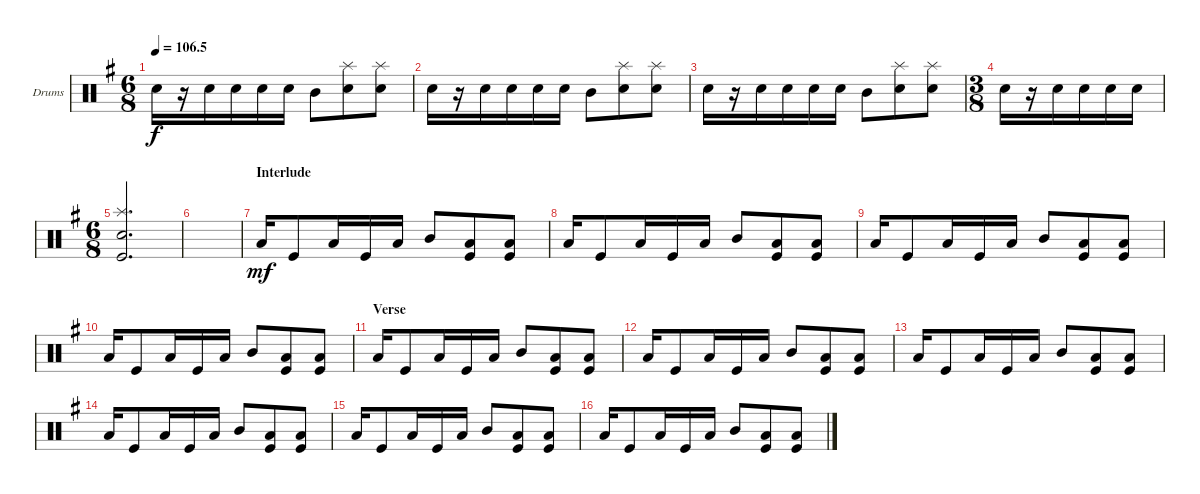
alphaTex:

\defaultSystemsLayout 4
\bracketExtendMode groupsimilarinstruments
\firstSystemTrackNameOrientation horizontal
\otherSystemsTrackNameOrientation horizontal
\track ("Drumkit" "Drums") {instrument percussion}
\staff {score}
\articulation defaults
\ts (6 8)
\tempo
106.5
\accidentals auto
\clef neutral
\ottava regular
\simile none
\scale
0.333333
\ks g "Snare (hit) 2".16{dy f}
r.16 "Snare (hit) 2".16 "Snare (hit) 2".16 "Snare (hit) 2".16 "Snare (hit) 2".16 "Mid Tom (hit)".8 ("Snare (hit) 2" "Splash (hit)").8 ("Snare (hit) 2" "Splash (hit)").8 |
\scale
0.248908 "Snare (hit) 2".16 r.16 "Snare (hit) 2".16 "Snare (hit) 2".16 "Snare (hit) 2".16 "Snare (hit) 2".16 "Mid Tom (hit)".8 ("Snare (hit) 2" "Splash (hit)").8 ("Snare (hit) 2" "Splash (hit)").8 |
\scale
0.248908 "Snare (hit) 2".16 r.16 "Snare (hit) 2".16 "Snare (hit) 2".16 "Snare (hit) 2".16 "Snare (hit) 2".16 "Mid Tom (hit)".8 ("Snare (hit) 2" "Splash (hit)").8 ("Snare (hit) 2" "Splash (hit)").8 |
\ts (3 8)
\scale
0.502183 "Snare (hit) 2".16 r.16 "Snare (hit) 2".16 "Snare (hit) 2".16 "Snare (hit) 2".16 "Snare (hit) 2".16 |
\ts (6 8)
\scale
0.502183 ("Snare (hit) 2" "Kick (hit)" "Splash (hit)").2{d} |
\scale
0.248908 |
\section ("" "Interlude")
\scale
0.248908 "Low Tom (hit)".16{dy mf} "Kick (hit)".8 "Low Tom (hit)".16 "Kick (hit)".16 "Low Tom (hit)".16 "Mid Tom (hit)".8 ("Low Tom (hit)" "Kick (hit)").8 ("Low Tom (hit)" "Kick (hit)").8 |
\scale
0.333333 "Low Tom (hit)".16 "Kick (hit)".8 "Low Tom (hit)".16 "Kick (hit)".16 "Low Tom (hit)".16 "Mid Tom (hit)".8 ("Low Tom (hit)" "Kick (hit)").8 ("Low Tom (hit)" "Kick (hit)").8 |
\scale
0.333333 "Low Tom (hit)".16 "Kick (hit)".8 "Low Tom (hit)".16 "Kick (hit)".16 "Low Tom (hit)".16 "Mid Tom (hit)".8 ("Low Tom (hit)" "Kick (hit)").8 ("Low Tom (hit)" "Kick (hit)").8 |
\scale
0.333333 "Low Tom (hit)".16 "Kick (hit)".8 "Low Tom (hit)".16 "Kick (hit)".16 "Low Tom (hit)".16 "Mid Tom (hit)".8 ("Low Tom (hit)" "Kick (hit)").8 ("Low Tom (hit)" "Kick (hit)").8 |
\section ("" "Verse")
\scale
0.333333 "Low Tom (hit)".16 "Kick (hit)".8 "Low Tom (hit)".16 "Kick (hit)".16 "Low Tom (hit)".16 "Mid Tom (hit)".8 ("Low Tom (hit)" "Kick (hit)").8 ("Low Tom (hit)" "Kick (hit)").8 |
\scale
0.333333 "Low Tom (hit)".16 "Kick (hit)".8 "Low Tom (hit)".16 "Kick (hit)".16 "Low Tom (hit)".16 "Mid Tom (hit)".8 ("Low Tom (hit)" "Kick (hit)").8 ("Low Tom (hit)" "Kick (hit)").8 |
\scale
0.333333 "Low Tom (hit)".16 "Kick (hit)".8 "Low Tom (hit)".16 "Kick (hit)".16 "Low Tom (hit)".16 "Mid Tom (hit)".8 ("Low Tom (hit)" "Kick (hit)").8 ("Low Tom (hit)" "Kick (hit)").8 |
\scale
0.333333 "Low Tom (hit)".16 "Kick (hit)".8 "Low Tom (hit)".16 "Kick (hit)".16 "Low Tom (hit)".16 "Mid Tom (hit)".8 ("Low Tom (hit)" "Kick (hit)").8 ("Low Tom (hit)" "Kick (hit)").8 |
\scale
0.333333 "Low Tom (hit)".16 "Kick (hit)".8 "Low Tom (hit)".16 "Kick (hit)".16 "Low Tom (hit)".16 "Mid Tom (hit)".8 ("Low Tom (hit)" "Kick (hit)").8 ("Low Tom (hit)" "Kick (hit)").8 |
\scale
0.333333 "Low Tom (hit)".16 "Kick (hit)".8 "Low Tom (hit)".16 "Kick (hit)".16 "Low Tom (hit)".16 "Mid Tom (hit)".8 ("Low Tom (hit)" "Kick (hit)").8 ("Low Tom (hit)" "Kick (hit)").8
